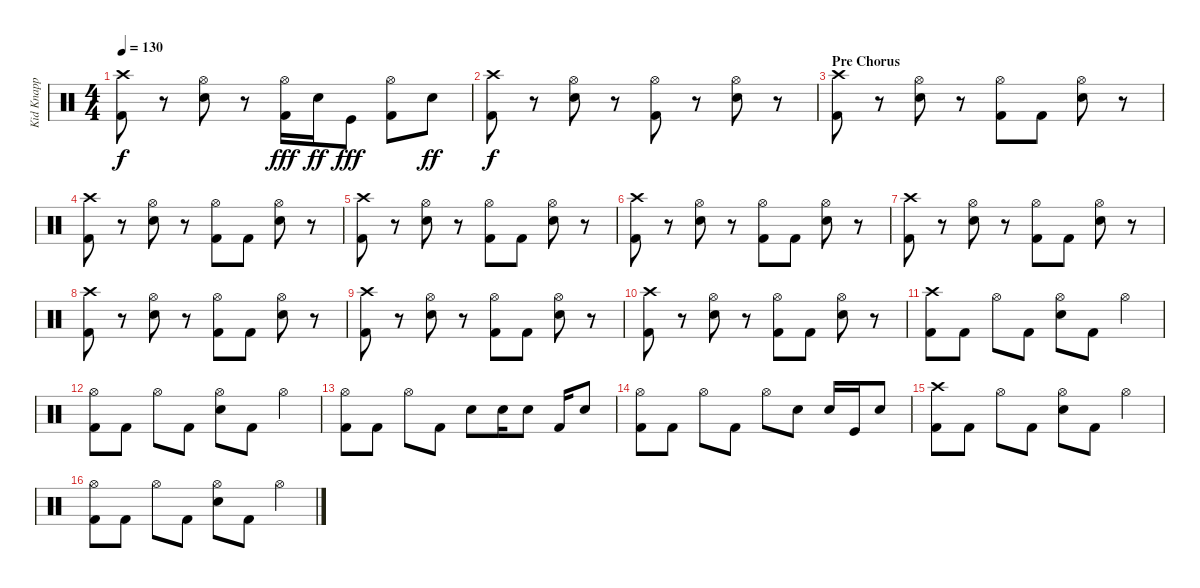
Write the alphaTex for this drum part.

\track ("Kid Knapp (Drums)" "Kid Knapp ") {instrument percussion}
\staff {score}
\articulation defaults
\ts (4 4)
\tempo 130
\clef neutral
\ks c
("Crash high (hit)" "Kick (hit) 2").8{dy f} r.8 ("Hi-Hat (open)" "Electric Snare (hit)").8 r.8 ("Hi-Hat (open)" "Kick (hit) 2").16{dy fff} "Electric Snare (hit)".16{dy ff} "Kick (hit)".8{dy fff} ("Hi-Hat (open)" "Kick (hit) 2").8 "Electric Snare (hit)".8{dy ff} |
("Crash high (hit)" "Kick (hit) 2").8{dy f} r.8 ("Hi-Hat (open)" "Electric Snare (hit)").8 r.8 ("Hi-Hat (open)" "Kick (hit) 2").8 r.8 ("Hi-Hat (open)" "Electric Snare (hit)").8 r.8 |
\section ("" "Pre Chorus")
("Crash high (hit)" "Kick (hit) 2").8 r.8 ("Hi-Hat (open)" "Electric Snare (hit)").8 r.8 ("Hi-Hat (open)" "Kick (hit) 2").8 "Kick (hit) 2".8 ("Hi-Hat (open)" "Electric Snare (hit)").8 r.8 |
("Crash high (hit)" "Kick (hit) 2").8 r.8 ("Hi-Hat (open)" "Electric Snare (hit)").8 r.8 ("Hi-Hat (open)" "Kick (hit) 2").8 "Kick (hit) 2".8 ("Hi-Hat (open)" "Electric Snare (hit)").8 r.8 |
("Crash high (hit)" "Kick (hit) 2").8 r.8 ("Hi-Hat (open)" "Electric Snare (hit)").8 r.8 ("Hi-Hat (open)" "Kick (hit) 2").8 "Kick (hit) 2".8 ("Hi-Hat (open)" "Electric Snare (hit)").8 r.8 |
("Crash high (hit)" "Kick (hit) 2").8 r.8 ("Hi-Hat (open)" "Electric Snare (hit)").8 r.8 ("Hi-Hat (open)" "Kick (hit) 2").8 "Kick (hit) 2".8 ("Hi-Hat (open)" "Electric Snare (hit)").8 r.8 |
("Crash high (hit)" "Kick (hit) 2").8 r.8 ("Hi-Hat (open)" "Electric Snare (hit)").8 r.8 ("Hi-Hat (open)" "Kick (hit) 2").8 "Kick (hit) 2".8 ("Hi-Hat (open)" "Electric Snare (hit)").8 r.8 |
("Crash high (hit)" "Kick (hit) 2").8 r.8 ("Hi-Hat (open)" "Electric Snare (hit)").8 r.8 ("Hi-Hat (open)" "Kick (hit) 2").8 "Kick (hit) 2".8 ("Hi-Hat (open)" "Electric Snare (hit)").8 r.8 |
("Crash high (hit)" "Kick (hit) 2").8 r.8 ("Hi-Hat (open)" "Electric Snare (hit)").8 r.8 ("Hi-Hat (open)" "Kick (hit) 2").8 "Kick (hit) 2".8 ("Hi-Hat (open)" "Electric Snare (hit)").8 r.8 |
("Crash high (hit)" "Kick (hit) 2").8 r.8 ("Hi-Hat (open)" "Electric Snare (hit)").8 r.8 ("Hi-Hat (open)" "Kick (hit) 2").8 "Kick (hit) 2".8 ("Hi-Hat (open)" "Electric Snare (hit)").8 r.8 |
("Crash high (hit)" "Kick (hit) 2").8 "Kick (hit) 2".8 "Hi-Hat (open)".8 "Kick (hit) 2".8 ("Hi-Hat (open)" "Electric Snare (hit)").8 "Kick (hit) 2".8 "Hi-Hat (open)".4 |
("Hi-Hat (open)" "Kick (hit) 2").8 "Kick (hit) 2".8 "Hi-Hat (open)".8 "Kick (hit) 2".8 ("Hi-Hat (open)" "Electric Snare (hit)").8 "Kick (hit) 2".8 "Hi-Hat (open)".4 |
("Hi-Hat (open)" "Kick (hit) 2").8 "Kick (hit) 2".8 "Hi-Hat (open)".8 "Kick (hit) 2".8 "Electric Snare (hit)".8 "Electric Snare (hit)".16 "Electric Snare (hit)".8 "Kick (hit) 2".16 "Electric Snare (hit)".8 |
("Hi-Hat (open)" "Kick (hit) 2").8 "Kick (hit) 2".8 "Hi-Hat (open)".8 "Kick (hit) 2".8 "Hi-Hat (open)".8 "Electric Snare (hit)".8 "Electric Snare (hit)".16 "Kick (hit)".16 "Electric Snare (hit)".8 |
("Crash high (hit)" "Kick (hit) 2").8 "Kick (hit) 2".8 "Hi-Hat (open)".8 "Kick (hit) 2".8 ("Hi-Hat (open)" "Electric Snare (hit)").8 "Kick (hit) 2".8 "Hi-Hat (open)".4 |
("Hi-Hat (open)" "Kick (hit) 2").8 "Kick (hit) 2".8 "Hi-Hat (open)".8 "Kick (hit) 2".8 ("Hi-Hat (open)" "Electric Snare (hit)").8 "Kick (hit) 2".8 "Hi-Hat (open)".4
